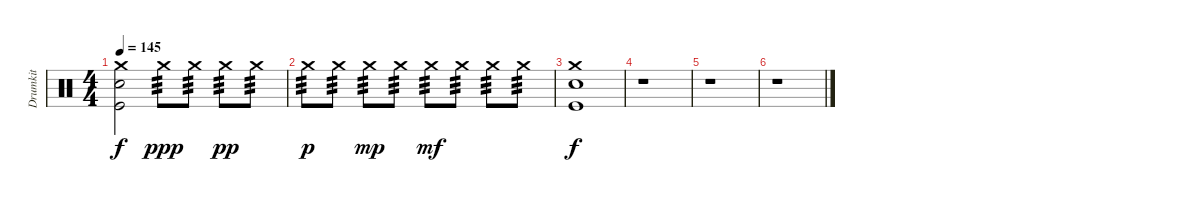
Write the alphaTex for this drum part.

\track ("Drumkit" "Drumkit") {instrument percussion}
\staff {score}
\articulation defaults
\ts (4 4)
\tempo 145
\clef neutral
\ks c
("Kick (hit)" "Snare (hit) 2" "Crash medium (hit)").2{dy f} "Crash medium (hit)".8{tp 3 dy ppp} "Crash medium (hit)".8{tp 3} "Crash medium (hit)".8{tp 3 dy pp} "Crash medium (hit)".8{tp 3} |
"Crash medium (hit)".8{tp 3 dy p} "Crash medium (hit)".8{tp 3} "Crash medium (hit)".8{tp 3 dy mp} "Crash medium (hit)".8{tp 3} "Crash medium (hit)".8{tp 3 dy mf} "Crash medium (hit)".8{tp 3} "Crash medium (hit)".8{tp 3} "Crash medium (hit)".8{tp 3} |
("Kick (hit)" "Snare (hit) 2" "Crash medium (hit)").1{dy f} |
r.1 |
r.1 |
r.1
